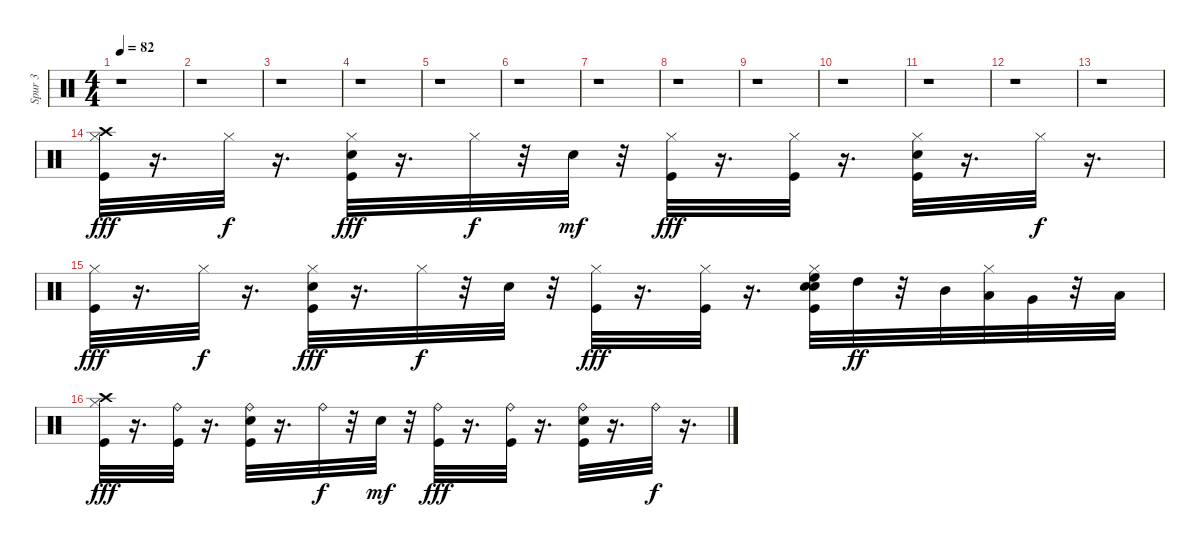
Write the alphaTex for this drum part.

\track ("Spur 3" "Spur 3") {instrument percussion}
\staff {score}
\articulation defaults
\ts (4 4)
\tempo 82
\clef neutral
\ks c
r.1{dy fff} |
r.1 |
r.1 |
r.1 |
r.1 |
r.1 |
r.1 |
r.1 |
r.1 |
r.1 |
r.1 |
r.1 |
r.1 |
("Hi-Hat (closed)" "Crash high (hit)" "Kick (hit)").32 r.16{d} "Hi-Hat (closed)".32{dy f} r.16{d} ("Hi-Hat (closed)" "Snare (hit) 2" "Kick (hit)").32{dy fff} r.16{d} "Hi-Hat (closed)".32{dy f} r.32 "Snare (hit) 2".32{dy mf} r.32 ("Hi-Hat (closed)" "Kick (hit)").32{dy fff} r.16{d} ("Kick (hit)" "Hi-Hat (closed)").32 r.16{d} ("Hi-Hat (closed)" "Snare (hit) 2" "Kick (hit)").32 r.16{d} "Hi-Hat (closed)".32{dy f} r.16{d} |
("Kick (hit)" "Hi-Hat (closed)").32{dy fff} r.16{d} "Hi-Hat (closed)".32{dy f} r.16{d} ("Snare (hit) 2" "Kick (hit)" "Hi-Hat (closed)").32{dy fff} r.16{d} "Hi-Hat (closed)".32{dy f} r.32 "Snare (hit) 2".32 r.32 ("Kick (hit)" "Hi-Hat (closed)").32{dy fff} r.16{d} ("Kick (hit)" "Hi-Hat (closed)").32 r.16{d} ("Snare (hit) 2" "High Floor Tom (hit)" "Snare (hit) 2" "Kick (hit)" "Hi-Hat (closed)").32 "High Tom (hit)".32{dy ff} r.32 "Mid Tom (hit)".32 ("Low Tom (hit)" "Hi-Hat (closed)").32 "Very Low Tom (hit)".32 r.32 "Low Floor Tom (hit)".32 |
("Crash high (hit)" "Kick (hit)" "Hi-Hat (closed)").32{dy fff} r.16{d} ("Ride (bell)" "Kick (hit)").32 r.16{d} ("Ride (bell)" "Snare (hit) 2" "Kick (hit)").32 r.16{d} "Ride (bell)".32{dy f} r.32 "Snare (hit) 2".32{dy mf} r.32 ("Kick (hit)" "Ride (bell)").32{dy fff} r.16{d} ("Ride (bell)" "Kick (hit)").32 r.16{d} ("Snare (hit) 2" "Kick (hit)" "Ride (bell)").32 r.16{d} "Ride (bell)".32{dy f} r.16{d}
